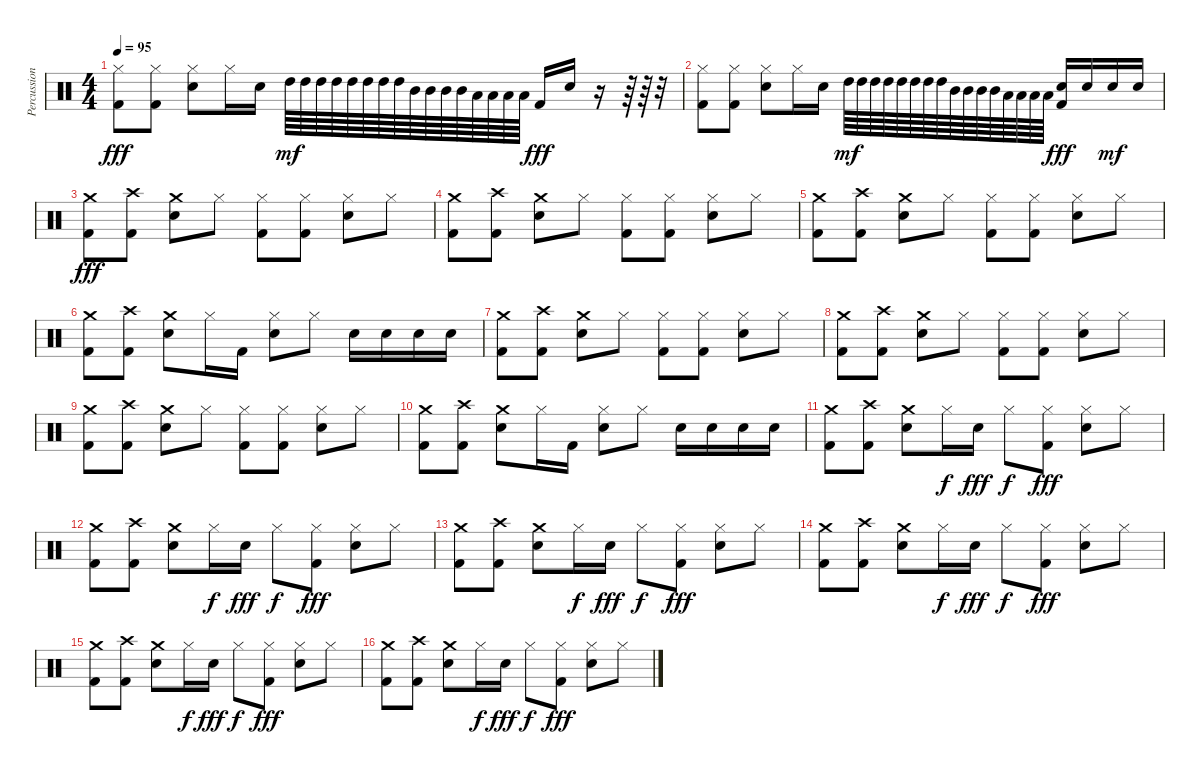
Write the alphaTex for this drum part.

\track ("Percussion" "Percussion") {instrument percussion}
\staff {score}
\articulation defaults
\ts (4 4)
\tempo 95
\clef neutral
\ks c
("Hi-Hat (closed)" "Kick (hit) 2").8{dy fff} ("Hi-Hat (closed)" "Kick (hit) 2").8 ("Hi-Hat (closed)" "Electric Snare (hit)").8 "Hi-Hat (closed)".16 "Electric Snare (hit)".16 "High Tom (hit)".64{dy mf} "High Tom (hit)".64 "High Tom (hit)".64 "High Tom (hit)".64 "High Tom (hit)".64 "High Tom (hit)".64 "High Tom (hit)".64 "High Tom (hit)".64 "Mid Tom (hit)".64 "Mid Tom (hit)".64 "Mid Tom (hit)".64 "Mid Tom (hit)".64 "Low Tom (hit)".64 "Low Tom (hit)".64 "Low Tom (hit)".64 "Low Tom (hit)".64 "Kick (hit) 2".16{dy fff} "Snare (hit) 2".16 r.16 r.64 r.64 r.32 |
("Hi-Hat (closed)" "Kick (hit) 2").8 ("Hi-Hat (closed)" "Kick (hit) 2").8 ("Hi-Hat (closed)" "Electric Snare (hit)").8 "Hi-Hat (closed)".16 "Electric Snare (hit)".16 "High Tom (hit)".64{dy mf} "High Tom (hit)".64 "High Tom (hit)".64 "High Tom (hit)".64 "High Tom (hit)".64 "High Tom (hit)".64 "High Tom (hit)".64 "High Tom (hit)".64 "Mid Tom (hit)".64 "Mid Tom (hit)".64 "Mid Tom (hit)".64 "Mid Tom (hit)".64 "Low Tom (hit)".64 "Low Tom (hit)".64 "Low Tom (hit)".64 "Low Tom (hit)".64 ("Snare (hit) 2" "Kick (hit) 2").16{dy fff} "Snare (hit) 2".16 "Snare (hit) 2".16{dy mf} "Snare (hit) 2".16 |
("Crash medium (hit)" "Kick (hit) 2").8{dy fff} ("Crash high (hit)" "Kick (hit) 2").8 ("Crash medium (hit)" "Electric Snare (hit)").8 "Hi-Hat (closed)".8 ("Hi-Hat (closed)" "Kick (hit) 2").8 ("Hi-Hat (closed)" "Kick (hit) 2").8 ("Hi-Hat (closed)" "Electric Snare (hit)").8 "Hi-Hat (closed)".8 |
("Crash medium (hit)" "Kick (hit) 2").8 ("Crash high (hit)" "Kick (hit) 2").8 ("Crash medium (hit)" "Electric Snare (hit)").8 "Hi-Hat (closed)".8 ("Hi-Hat (closed)" "Kick (hit) 2").8 ("Hi-Hat (closed)" "Kick (hit) 2").8 ("Hi-Hat (closed)" "Electric Snare (hit)").8 "Hi-Hat (closed)".8 |
("Crash medium (hit)" "Kick (hit) 2").8 ("Crash high (hit)" "Kick (hit) 2").8 ("Crash medium (hit)" "Electric Snare (hit)").8 "Hi-Hat (closed)".8 ("Hi-Hat (closed)" "Kick (hit) 2").8 ("Hi-Hat (closed)" "Kick (hit) 2").8 ("Hi-Hat (closed)" "Electric Snare (hit)").8 "Hi-Hat (closed)".8 |
("Crash medium (hit)" "Kick (hit) 2").8 ("Crash high (hit)" "Kick (hit) 2").8 ("Crash medium (hit)" "Electric Snare (hit)").8 "Hi-Hat (closed)".16 "Kick (hit) 2".16 ("Hi-Hat (closed)" "Electric Snare (hit)").8 "Hi-Hat (closed)".8 "Electric Snare (hit)".16 "Electric Snare (hit)".16 "Electric Snare (hit)".16 "Electric Snare (hit)".16 |
("Crash medium (hit)" "Kick (hit) 2").8 ("Crash high (hit)" "Kick (hit) 2").8 ("Crash medium (hit)" "Electric Snare (hit)").8 "Hi-Hat (closed)".8 ("Hi-Hat (closed)" "Kick (hit) 2").8 ("Hi-Hat (closed)" "Kick (hit) 2").8 ("Hi-Hat (closed)" "Electric Snare (hit)").8 "Hi-Hat (closed)".8 |
("Crash medium (hit)" "Kick (hit) 2").8 ("Crash high (hit)" "Kick (hit) 2").8 ("Crash medium (hit)" "Electric Snare (hit)").8 "Hi-Hat (closed)".8 ("Hi-Hat (closed)" "Kick (hit) 2").8 ("Hi-Hat (closed)" "Kick (hit) 2").8 ("Hi-Hat (closed)" "Electric Snare (hit)").8 "Hi-Hat (closed)".8 |
("Crash medium (hit)" "Kick (hit) 2").8 ("Crash high (hit)" "Kick (hit) 2").8 ("Crash medium (hit)" "Electric Snare (hit)").8 "Hi-Hat (closed)".8 ("Hi-Hat (closed)" "Kick (hit) 2").8 ("Hi-Hat (closed)" "Kick (hit) 2").8 ("Hi-Hat (closed)" "Electric Snare (hit)").8 "Hi-Hat (closed)".8 |
("Crash medium (hit)" "Kick (hit) 2").8 ("Crash high (hit)" "Kick (hit) 2").8 ("Crash medium (hit)" "Electric Snare (hit)").8 "Hi-Hat (closed)".16 "Kick (hit) 2".16 ("Hi-Hat (closed)" "Electric Snare (hit)").8 "Hi-Hat (closed)".8 "Electric Snare (hit)".16 "Electric Snare (hit)".16 "Electric Snare (hit)".16 "Electric Snare (hit)".16 |
("Crash medium (hit)" "Kick (hit) 2").8 ("Crash high (hit)" "Kick (hit) 2").8 ("Crash medium (hit)" "Electric Snare (hit)").8 "Hi-Hat (closed)".16{dy f} "Electric Snare (hit)".16{dy fff} "Hi-Hat (closed)".8{dy f} ("Hi-Hat (closed)" "Kick (hit) 2").8{dy fff} ("Hi-Hat (closed)" "Electric Snare (hit)").8 "Hi-Hat (closed)".8 |
("Crash medium (hit)" "Kick (hit) 2").8 ("Crash high (hit)" "Kick (hit) 2").8 ("Crash medium (hit)" "Electric Snare (hit)").8 "Hi-Hat (closed)".16{dy f} "Electric Snare (hit)".16{dy fff} "Hi-Hat (closed)".8{dy f} ("Hi-Hat (closed)" "Kick (hit) 2").8{dy fff} ("Hi-Hat (closed)" "Electric Snare (hit)").8 "Hi-Hat (closed)".8 |
("Crash medium (hit)" "Kick (hit) 2").8 ("Crash high (hit)" "Kick (hit) 2").8 ("Crash medium (hit)" "Electric Snare (hit)").8 "Hi-Hat (closed)".16{dy f} "Electric Snare (hit)".16{dy fff} "Hi-Hat (closed)".8{dy f} ("Hi-Hat (closed)" "Kick (hit) 2").8{dy fff} ("Hi-Hat (closed)" "Electric Snare (hit)").8 "Hi-Hat (closed)".8 |
("Crash medium (hit)" "Kick (hit) 2").8 ("Crash high (hit)" "Kick (hit) 2").8 ("Crash medium (hit)" "Electric Snare (hit)").8 "Hi-Hat (closed)".16{dy f} "Electric Snare (hit)".16{dy fff} "Hi-Hat (closed)".8{dy f} ("Hi-Hat (closed)" "Kick (hit) 2").8{dy fff} ("Hi-Hat (closed)" "Electric Snare (hit)").8 "Hi-Hat (closed)".8 |
("Crash medium (hit)" "Kick (hit) 2").8 ("Crash high (hit)" "Kick (hit) 2").8 ("Crash medium (hit)" "Electric Snare (hit)").8 "Hi-Hat (closed)".16{dy f} "Electric Snare (hit)".16{dy fff} "Hi-Hat (closed)".8{dy f} ("Hi-Hat (closed)" "Kick (hit) 2").8{dy fff} ("Hi-Hat (closed)" "Electric Snare (hit)").8 "Hi-Hat (closed)".8 |
("Crash medium (hit)" "Kick (hit) 2").8 ("Crash high (hit)" "Kick (hit) 2").8 ("Crash medium (hit)" "Electric Snare (hit)").8 "Hi-Hat (closed)".16{dy f} "Electric Snare (hit)".16{dy fff} "Hi-Hat (closed)".8{dy f} ("Hi-Hat (closed)" "Kick (hit) 2").8{dy fff} ("Hi-Hat (closed)" "Electric Snare (hit)").8 "Hi-Hat (closed)".8
